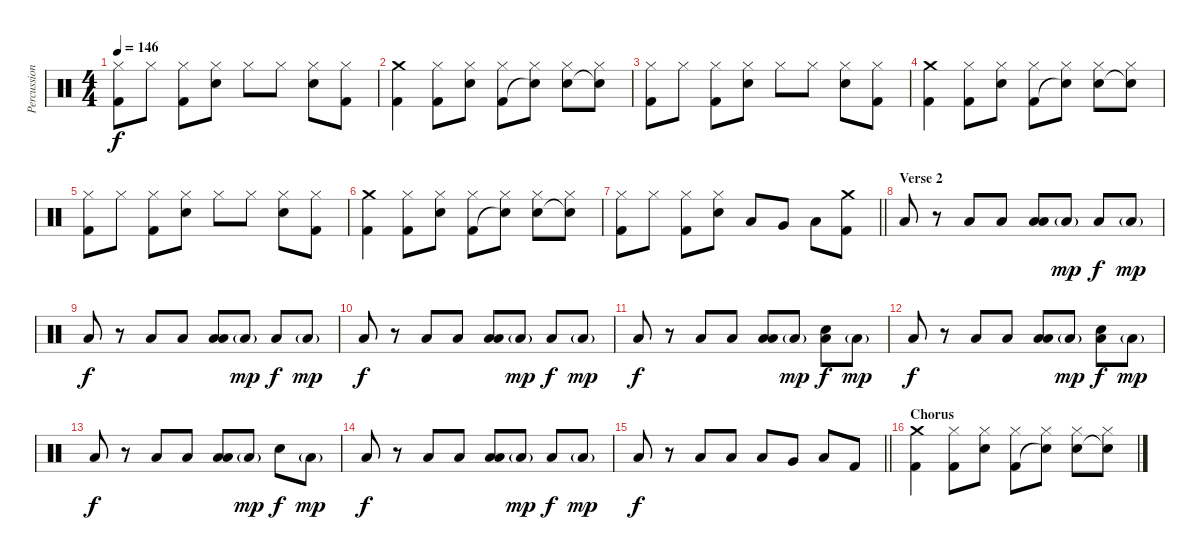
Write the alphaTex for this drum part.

\track ("Percussion" "Percussion") {instrument percussion}
\staff {score}
\articulation defaults
\ts (4 4)
\tempo 146
\clef neutral
\ks c
("Hi-Hat (closed)" "Kick (hit) 2").8{dy f} "Hi-Hat (closed)".8 ("Hi-Hat (closed)" "Kick (hit) 2").8 ("Hi-Hat (closed)" "Snare (hit) 2").8 "Hi-Hat (closed)".8 "Hi-Hat (closed)".8 ("Hi-Hat (closed)" "Snare (hit) 2").8 ("Hi-Hat (closed)" "Kick (hit) 2").8 |
("Crash medium (hit)" "Kick (hit) 2").4 ("Hi-Hat (closed)" "Kick (hit) 2").8 ("Hi-Hat (closed)" "Snare (hit) 2").8 ("Hi-Hat (closed)" "Kick (hit) 2").8 ("Hi-Hat (closed)" "Snare (hit)"{t}).8 ("Hi-Hat (closed)" "Snare (hit) 2").8 ("Hi-Hat (closed)" "Snare (hit)"{t}).8 |
("Hi-Hat (closed)" "Kick (hit) 2").8 "Hi-Hat (closed)".8 ("Hi-Hat (closed)" "Kick (hit) 2").8 ("Hi-Hat (closed)" "Snare (hit) 2").8 "Hi-Hat (closed)".8 "Hi-Hat (closed)".8 ("Hi-Hat (closed)" "Snare (hit) 2").8 ("Hi-Hat (closed)" "Kick (hit) 2").8 |
("Crash medium (hit)" "Kick (hit) 2").4 ("Hi-Hat (closed)" "Kick (hit) 2").8 ("Hi-Hat (closed)" "Snare (hit) 2").8 ("Hi-Hat (closed)" "Kick (hit) 2").8 ("Hi-Hat (closed)" "Snare (hit)"{t}).8 ("Hi-Hat (closed)" "Snare (hit) 2").8 ("Hi-Hat (closed)" "Snare (hit)"{t}).8 |
("Hi-Hat (closed)" "Kick (hit) 2").8 "Hi-Hat (closed)".8 ("Hi-Hat (closed)" "Kick (hit) 2").8 ("Hi-Hat (closed)" "Snare (hit) 2").8 "Hi-Hat (closed)".8 "Hi-Hat (closed)".8 ("Hi-Hat (closed)" "Snare (hit) 2").8 ("Hi-Hat (closed)" "Kick (hit) 2").8 |
("Crash medium (hit)" "Kick (hit) 2").4 ("Hi-Hat (closed)" "Kick (hit) 2").8 ("Hi-Hat (closed)" "Snare (hit) 2").8 ("Hi-Hat (closed)" "Kick (hit) 2").8 ("Hi-Hat (closed)" "Snare (hit)"{t}).8 ("Hi-Hat (closed)" "Snare (hit) 2").8 ("Hi-Hat (closed)" "Snare (hit)"{t}).8 |
\barLineRight lightlight
("Hi-Hat (closed)" "Kick (hit) 2").8 "Hi-Hat (closed)".8 ("Hi-Hat (closed)" "Kick (hit) 2").8 ("Hi-Hat (closed)" "Snare (hit) 2").8 "Low Tom (hit)".8 "Very Low Tom (hit)".8 "Low Floor Tom (hit)".8 ("Crash medium (hit)" "Kick (hit) 2").8 |
\section ("" "Verse 2")
"Low Tom (hit)".8 r.8 "Low Tom (hit)".8 "Low Tom (hit)".8 ("Low Tom (hit)" "Low Floor Tom (hit)").8 "Low Floor Tom (hit)"{g}.8{dy mp} "Low Floor Tom (hit)".8{dy f} "Low Tom (hit)"{g}.8{dy mp} |
"Low Tom (hit)".8{dy f} r.8 "Low Tom (hit)".8 "Low Tom (hit)".8 ("Low Tom (hit)" "Low Floor Tom (hit)").8 "Low Floor Tom (hit)"{g}.8{dy mp} "Low Floor Tom (hit)".8{dy f} "Low Tom (hit)"{g}.8{dy mp} |
"Low Tom (hit)".8{dy f} r.8 "Low Tom (hit)".8 "Low Tom (hit)".8 ("Low Tom (hit)" "Low Floor Tom (hit)").8 "Low Floor Tom (hit)"{g}.8{dy mp} "Low Floor Tom (hit)".8{dy f} "Low Tom (hit)"{g}.8{dy mp} |
"Low Tom (hit)".8{dy f} r.8 "Low Tom (hit)".8 "Low Tom (hit)".8 ("Low Tom (hit)" "Low Floor Tom (hit)").8 "Low Floor Tom (hit)"{g}.8{dy mp} ("Snare (hit) 2" "Low Floor Tom (hit)").8{dy f} "Low Tom (hit)"{g}.8{dy mp} |
"Low Tom (hit)".8{dy f} r.8 "Low Tom (hit)".8 "Low Tom (hit)".8 ("Low Tom (hit)" "Low Floor Tom (hit)").8 "Low Floor Tom (hit)"{g}.8{dy mp} ("Snare (hit) 2" "Low Floor Tom (hit)").8{dy f} "Low Tom (hit)"{g}.8{dy mp} |
"Low Tom (hit)".8{dy f} r.8 "Low Tom (hit)".8 "Low Tom (hit)".8 ("Low Tom (hit)" "Low Floor Tom (hit)").8 "Low Floor Tom (hit)"{g}.8{dy mp} "Snare (hit) 2".8{dy f} "Low Tom (hit)"{g}.8{dy mp} |
"Low Tom (hit)".8{dy f} r.8 "Low Tom (hit)".8 "Low Tom (hit)".8 ("Low Tom (hit)" "Low Floor Tom (hit)").8 "Low Floor Tom (hit)"{g}.8{dy mp} "Low Floor Tom (hit)".8{dy f} "Low Tom (hit)"{g}.8{dy mp} |
\barLineRight lightlight "Low Tom (hit)".8{dy f}
r.8 "Low Tom (hit)".8 "Low Tom (hit)".8 "Low Tom (hit)".8 "Very Low Tom (hit)".8 "Low Floor Tom (hit)".8 "Kick (hit) 2".8 |
\section ("" "Chorus")
("Crash medium (hit)" "Kick (hit) 2").4 ("Hi-Hat (closed)" "Kick (hit) 2").8 ("Hi-Hat (closed)" "Snare (hit) 2").8 ("Hi-Hat (closed)" "Kick (hit) 2").8 ("Hi-Hat (closed)" "Snare (hit)"{t}).8 ("Hi-Hat (closed)" "Snare (hit) 2").8 ("Hi-Hat (closed)" "Snare (hit)"{t}).8
